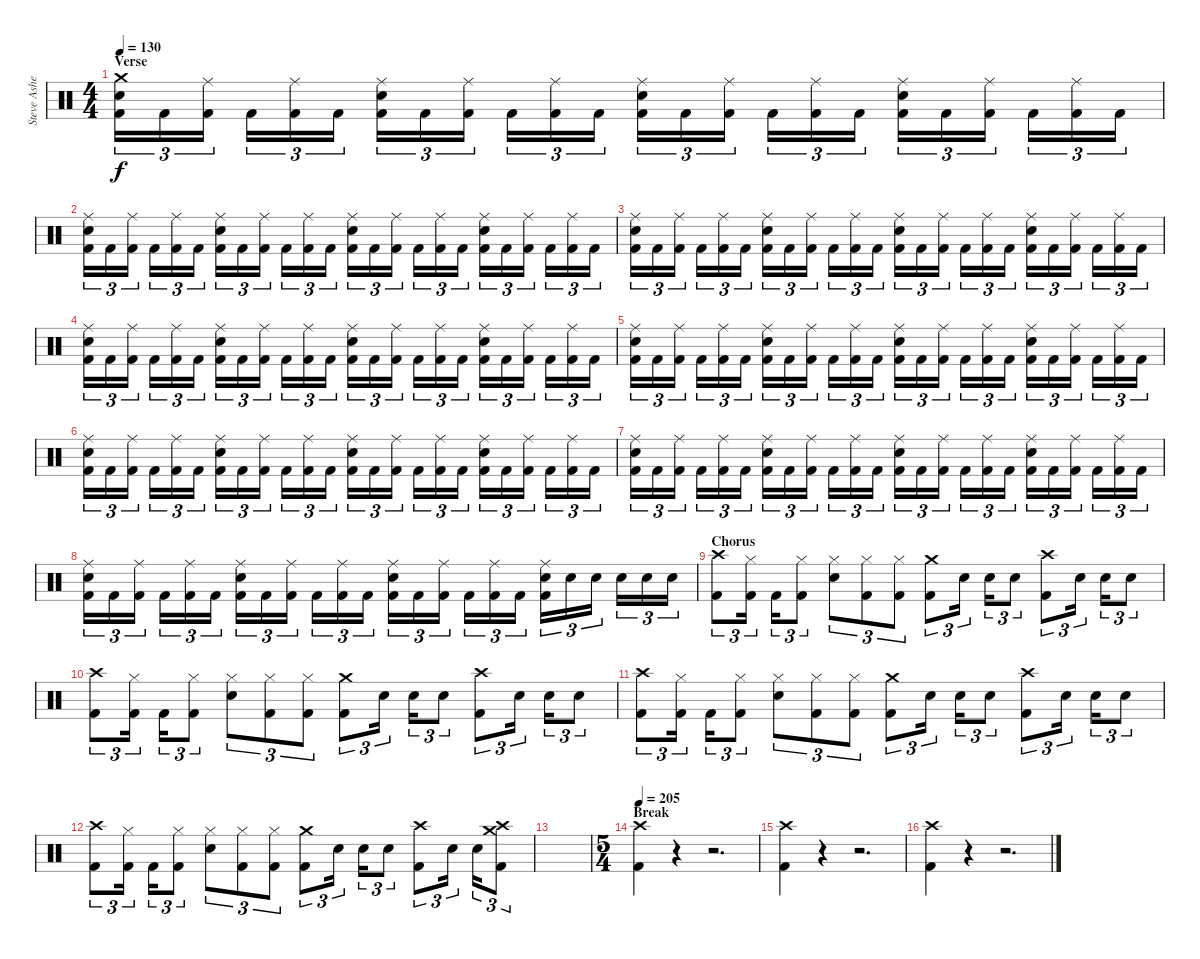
\track ("Steve Asheim" "Steve Ashe") {instrument percussion}
\staff {score}
\articulation defaults
\ts (4 4)
\section ("" "Verse")
\tempo 130
\clef neutral
\ks c
("Crash medium (hit)" "Electric Snare (hit)" "Kick (hit) 2").16{tu (3 2) dy f} "Kick (hit) 2".16{tu (3 2)} ("Ride (middle)" "Kick (hit) 2").16{tu (3 2)} "Kick (hit) 2".16{tu (3 2)} ("Ride (middle)" "Kick (hit) 2").16{tu (3 2)} "Kick (hit) 2".16{tu (3 2)} ("Ride (middle)" "Electric Snare (hit)" "Kick (hit) 2").16{tu (3 2)} "Kick (hit) 2".16{tu (3 2)} ("Ride (middle)" "Kick (hit) 2").16{tu (3 2)} "Kick (hit) 2".16{tu (3 2)} ("Ride (middle)" "Kick (hit) 2").16{tu (3 2)} "Kick (hit) 2".16{tu (3 2)} ("Ride (middle)" "Electric Snare (hit)" "Kick (hit) 2").16{tu (3 2)} "Kick (hit) 2".16{tu (3 2)} ("Ride (middle)" "Kick (hit) 2").16{tu (3 2)} "Kick (hit) 2".16{tu (3 2)} ("Ride (middle)" "Kick (hit) 2").16{tu (3 2)} "Kick (hit) 2".16{tu (3 2)} ("Ride (middle)" "Electric Snare (hit)" "Kick (hit) 2").16{tu (3 2)} "Kick (hit) 2".16{tu (3 2)} ("Ride (middle)" "Kick (hit) 2").16{tu (3 2)} "Kick (hit) 2".16{tu (3 2)} ("Ride (middle)" "Kick (hit) 2").16{tu (3 2)} "Kick (hit) 2".16{tu (3 2)} |
("Ride (middle)" "Electric Snare (hit)" "Kick (hit) 2").16{tu (3 2)} "Kick (hit) 2".16{tu (3 2)} ("Ride (middle)" "Kick (hit) 2").16{tu (3 2)} "Kick (hit) 2".16{tu (3 2)} ("Ride (middle)" "Kick (hit) 2").16{tu (3 2)} "Kick (hit) 2".16{tu (3 2)} ("Ride (middle)" "Electric Snare (hit)" "Kick (hit) 2").16{tu (3 2)} "Kick (hit) 2".16{tu (3 2)} ("Ride (middle)" "Kick (hit) 2").16{tu (3 2)} "Kick (hit) 2".16{tu (3 2)} ("Ride (middle)" "Kick (hit) 2").16{tu (3 2)} "Kick (hit) 2".16{tu (3 2)} ("Ride (middle)" "Electric Snare (hit)" "Kick (hit) 2").16{tu (3 2)} "Kick (hit) 2".16{tu (3 2)} ("Ride (middle)" "Kick (hit) 2").16{tu (3 2)} "Kick (hit) 2".16{tu (3 2)} ("Ride (middle)" "Kick (hit) 2").16{tu (3 2)} "Kick (hit) 2".16{tu (3 2)} ("Ride (middle)" "Electric Snare (hit)" "Kick (hit) 2").16{tu (3 2)} "Kick (hit) 2".16{tu (3 2)} ("Ride (middle)" "Kick (hit) 2").16{tu (3 2)} "Kick (hit) 2".16{tu (3 2)} ("Ride (middle)" "Kick (hit) 2").16{tu (3 2)} "Kick (hit) 2".16{tu (3 2)} |
("Ride (middle)" "Electric Snare (hit)" "Kick (hit) 2").16{tu (3 2)} "Kick (hit) 2".16{tu (3 2)} ("Ride (middle)" "Kick (hit) 2").16{tu (3 2)} "Kick (hit) 2".16{tu (3 2)} ("Ride (middle)" "Kick (hit) 2").16{tu (3 2)} "Kick (hit) 2".16{tu (3 2)} ("Ride (middle)" "Electric Snare (hit)" "Kick (hit) 2").16{tu (3 2)} "Kick (hit) 2".16{tu (3 2)} ("Ride (middle)" "Kick (hit) 2").16{tu (3 2)} "Kick (hit) 2".16{tu (3 2)} ("Ride (middle)" "Kick (hit) 2").16{tu (3 2)} "Kick (hit) 2".16{tu (3 2)} ("Ride (middle)" "Electric Snare (hit)" "Kick (hit) 2").16{tu (3 2)} "Kick (hit) 2".16{tu (3 2)} ("Ride (middle)" "Kick (hit) 2").16{tu (3 2)} "Kick (hit) 2".16{tu (3 2)} ("Ride (middle)" "Kick (hit) 2").16{tu (3 2)} "Kick (hit) 2".16{tu (3 2)} ("Ride (middle)" "Electric Snare (hit)" "Kick (hit) 2").16{tu (3 2)} "Kick (hit) 2".16{tu (3 2)} ("Ride (middle)" "Kick (hit) 2").16{tu (3 2)} "Kick (hit) 2".16{tu (3 2)} ("Ride (middle)" "Kick (hit) 2").16{tu (3 2)} "Kick (hit) 2".16{tu (3 2)} |
("Ride (middle)" "Electric Snare (hit)" "Kick (hit) 2").16{tu (3 2)} "Kick (hit) 2".16{tu (3 2)} ("Ride (middle)" "Kick (hit) 2").16{tu (3 2)} "Kick (hit) 2".16{tu (3 2)} ("Ride (middle)" "Kick (hit) 2").16{tu (3 2)} "Kick (hit) 2".16{tu (3 2)} ("Ride (middle)" "Electric Snare (hit)" "Kick (hit) 2").16{tu (3 2)} "Kick (hit) 2".16{tu (3 2)} ("Ride (middle)" "Kick (hit) 2").16{tu (3 2)} "Kick (hit) 2".16{tu (3 2)} ("Ride (middle)" "Kick (hit) 2").16{tu (3 2)} "Kick (hit) 2".16{tu (3 2)} ("Ride (middle)" "Electric Snare (hit)" "Kick (hit) 2").16{tu (3 2)} "Kick (hit) 2".16{tu (3 2)} ("Ride (middle)" "Kick (hit) 2").16{tu (3 2)} "Kick (hit) 2".16{tu (3 2)} ("Ride (middle)" "Kick (hit) 2").16{tu (3 2)} "Kick (hit) 2".16{tu (3 2)} ("Ride (middle)" "Electric Snare (hit)" "Kick (hit) 2").16{tu (3 2)} "Kick (hit) 2".16{tu (3 2)} ("Ride (middle)" "Kick (hit) 2").16{tu (3 2)} "Kick (hit) 2".16{tu (3 2)} ("Ride (middle)" "Kick (hit) 2").16{tu (3 2)} "Kick (hit) 2".16{tu (3 2)} |
("Ride (middle)" "Electric Snare (hit)" "Kick (hit) 2").16{tu (3 2)} "Kick (hit) 2".16{tu (3 2)} ("Ride (middle)" "Kick (hit) 2").16{tu (3 2)} "Kick (hit) 2".16{tu (3 2)} ("Ride (middle)" "Kick (hit) 2").16{tu (3 2)} "Kick (hit) 2".16{tu (3 2)} ("Ride (middle)" "Electric Snare (hit)" "Kick (hit) 2").16{tu (3 2)} "Kick (hit) 2".16{tu (3 2)} ("Ride (middle)" "Kick (hit) 2").16{tu (3 2)} "Kick (hit) 2".16{tu (3 2)} ("Ride (middle)" "Kick (hit) 2").16{tu (3 2)} "Kick (hit) 2".16{tu (3 2)} ("Ride (middle)" "Electric Snare (hit)" "Kick (hit) 2").16{tu (3 2)} "Kick (hit) 2".16{tu (3 2)} ("Ride (middle)" "Kick (hit) 2").16{tu (3 2)} "Kick (hit) 2".16{tu (3 2)} ("Ride (middle)" "Kick (hit) 2").16{tu (3 2)} "Kick (hit) 2".16{tu (3 2)} ("Ride (middle)" "Electric Snare (hit)" "Kick (hit) 2").16{tu (3 2)} "Kick (hit) 2".16{tu (3 2)} ("Ride (middle)" "Kick (hit) 2").16{tu (3 2)} "Kick (hit) 2".16{tu (3 2)} ("Ride (middle)" "Kick (hit) 2").16{tu (3 2)} "Kick (hit) 2".16{tu (3 2)} |
("Ride (middle)" "Electric Snare (hit)" "Kick (hit) 2").16{tu (3 2)} "Kick (hit) 2".16{tu (3 2)} ("Ride (middle)" "Kick (hit) 2").16{tu (3 2)} "Kick (hit) 2".16{tu (3 2)} ("Ride (middle)" "Kick (hit) 2").16{tu (3 2)} "Kick (hit) 2".16{tu (3 2)} ("Ride (middle)" "Electric Snare (hit)" "Kick (hit) 2").16{tu (3 2)} "Kick (hit) 2".16{tu (3 2)} ("Ride (middle)" "Kick (hit) 2").16{tu (3 2)} "Kick (hit) 2".16{tu (3 2)} ("Ride (middle)" "Kick (hit) 2").16{tu (3 2)} "Kick (hit) 2".16{tu (3 2)} ("Ride (middle)" "Electric Snare (hit)" "Kick (hit) 2").16{tu (3 2)} "Kick (hit) 2".16{tu (3 2)} ("Ride (middle)" "Kick (hit) 2").16{tu (3 2)} "Kick (hit) 2".16{tu (3 2)} ("Ride (middle)" "Kick (hit) 2").16{tu (3 2)} "Kick (hit) 2".16{tu (3 2)} ("Ride (middle)" "Electric Snare (hit)" "Kick (hit) 2").16{tu (3 2)} "Kick (hit) 2".16{tu (3 2)} ("Ride (middle)" "Kick (hit) 2").16{tu (3 2)} "Kick (hit) 2".16{tu (3 2)} ("Ride (middle)" "Kick (hit) 2").16{tu (3 2)} "Kick (hit) 2".16{tu (3 2)} |
("Ride (middle)" "Electric Snare (hit)" "Kick (hit) 2").16{tu (3 2)} "Kick (hit) 2".16{tu (3 2)} ("Ride (middle)" "Kick (hit) 2").16{tu (3 2)} "Kick (hit) 2".16{tu (3 2)} ("Ride (middle)" "Kick (hit) 2").16{tu (3 2)} "Kick (hit) 2".16{tu (3 2)} ("Ride (middle)" "Electric Snare (hit)" "Kick (hit) 2").16{tu (3 2)} "Kick (hit) 2".16{tu (3 2)} ("Ride (middle)" "Kick (hit) 2").16{tu (3 2)} "Kick (hit) 2".16{tu (3 2)} ("Ride (middle)" "Kick (hit) 2").16{tu (3 2)} "Kick (hit) 2".16{tu (3 2)} ("Ride (middle)" "Electric Snare (hit)" "Kick (hit) 2").16{tu (3 2)} "Kick (hit) 2".16{tu (3 2)} ("Ride (middle)" "Kick (hit) 2").16{tu (3 2)} "Kick (hit) 2".16{tu (3 2)} ("Ride (middle)" "Kick (hit) 2").16{tu (3 2)} "Kick (hit) 2".16{tu (3 2)} ("Ride (middle)" "Electric Snare (hit)" "Kick (hit) 2").16{tu (3 2)} "Kick (hit) 2".16{tu (3 2)} ("Ride (middle)" "Kick (hit) 2").16{tu (3 2)} "Kick (hit) 2".16{tu (3 2)} ("Ride (middle)" "Kick (hit) 2").16{tu (3 2)} "Kick (hit) 2".16{tu (3 2)} |
("Ride (middle)" "Electric Snare (hit)" "Kick (hit) 2").16{tu (3 2)} "Kick (hit) 2".16{tu (3 2)} ("Ride (middle)" "Kick (hit) 2").16{tu (3 2)} "Kick (hit) 2".16{tu (3 2)} ("Ride (middle)" "Kick (hit) 2").16{tu (3 2)} "Kick (hit) 2".16{tu (3 2)} ("Ride (middle)" "Electric Snare (hit)" "Kick (hit) 2").16{tu (3 2)} "Kick (hit) 2".16{tu (3 2)} ("Ride (middle)" "Kick (hit) 2").16{tu (3 2)} "Kick (hit) 2".16{tu (3 2)} ("Ride (middle)" "Kick (hit) 2").16{tu (3 2)} "Kick (hit) 2".16{tu (3 2)} ("Ride (middle)" "Electric Snare (hit)" "Kick (hit) 2").16{tu (3 2)} "Kick (hit) 2".16{tu (3 2)} ("Ride (middle)" "Kick (hit) 2").16{tu (3 2)} "Kick (hit) 2".16{tu (3 2)} ("Ride (middle)" "Kick (hit) 2").16{tu (3 2)} "Kick (hit) 2".16{tu (3 2)} ("Ride (middle)" "Electric Snare (hit)" "Kick (hit) 2").16{tu (3 2)} "Electric Snare (hit)".16{tu (3 2)} "Electric Snare (hit)".16{tu (3 2)} "Electric Snare (hit)".16{tu (3 2)} "Electric Snare (hit)".16{tu (3 2)} "Electric Snare (hit)".16{tu (3 2)} |
\section ("" "Chorus")
("Crash high (hit)" "Kick (hit) 2").8{tu (3 2)} ("Hi-Hat (closed)" "Kick (hit) 2").16{tu (3 2)} "Kick (hit) 2".16{tu (3 2)} ("Hi-Hat (closed)" "Kick (hit) 2").8{tu (3 2)} ("Hi-Hat (closed)" "Electric Snare (hit)").8{tu (3 2)} ("Hi-Hat (closed)" "Kick (hit) 2").8{tu (3 2)} ("Hi-Hat (closed)" "Kick (hit) 2").8{tu (3 2)} ("Crash medium (hit)" "Kick (hit) 2").8{tu (3 2)} "Electric Snare (hit)".16{tu (3 2)} "Electric Snare (hit)".16{tu (3 2)} "Electric Snare (hit)".8{tu (3 2)} ("Crash high (hit)" "Kick (hit) 2").8{tu (3 2)} "Electric Snare (hit)".16{tu (3 2)} "Electric Snare (hit)".16{tu (3 2)} "Electric Snare (hit)".8{tu (3 2)} |
("Crash high (hit)" "Kick (hit) 2").8{tu (3 2)} ("Hi-Hat (closed)" "Kick (hit) 2").16{tu (3 2)} "Kick (hit) 2".16{tu (3 2)} ("Hi-Hat (closed)" "Kick (hit) 2").8{tu (3 2)} ("Hi-Hat (closed)" "Electric Snare (hit)").8{tu (3 2)} ("Hi-Hat (closed)" "Kick (hit) 2").8{tu (3 2)} ("Hi-Hat (closed)" "Kick (hit) 2").8{tu (3 2)} ("Crash medium (hit)" "Kick (hit) 2").8{tu (3 2)} "Electric Snare (hit)".16{tu (3 2)} "Electric Snare (hit)".16{tu (3 2)} "Electric Snare (hit)".8{tu (3 2)} ("Crash high (hit)" "Kick (hit) 2").8{tu (3 2)} "Electric Snare (hit)".16{tu (3 2)} "Electric Snare (hit)".16{tu (3 2)} "Electric Snare (hit)".8{tu (3 2)} |
("Crash high (hit)" "Kick (hit) 2").8{tu (3 2)} ("Hi-Hat (closed)" "Kick (hit) 2").16{tu (3 2)} "Kick (hit) 2".16{tu (3 2)} ("Hi-Hat (closed)" "Kick (hit) 2").8{tu (3 2)} ("Hi-Hat (closed)" "Electric Snare (hit)").8{tu (3 2)} ("Hi-Hat (closed)" "Kick (hit) 2").8{tu (3 2)} ("Hi-Hat (closed)" "Kick (hit) 2").8{tu (3 2)} ("Crash medium (hit)" "Kick (hit) 2").8{tu (3 2)} "Electric Snare (hit)".16{tu (3 2)} "Electric Snare (hit)".16{tu (3 2)} "Electric Snare (hit)".8{tu (3 2)} ("Crash high (hit)" "Kick (hit) 2").8{tu (3 2)} "Electric Snare (hit)".16{tu (3 2)} "Electric Snare (hit)".16{tu (3 2)} "Electric Snare (hit)".8{tu (3 2)} |
("Crash high (hit)" "Kick (hit) 2").8{tu (3 2)} ("Hi-Hat (closed)" "Kick (hit) 2").16{tu (3 2)} "Kick (hit) 2".16{tu (3 2)} ("Hi-Hat (closed)" "Kick (hit) 2").8{tu (3 2)} ("Hi-Hat (closed)" "Electric Snare (hit)").8{tu (3 2)} ("Hi-Hat (closed)" "Kick (hit) 2").8{tu (3 2)} ("Hi-Hat (closed)" "Kick (hit) 2").8{tu (3 2)} ("Crash medium (hit)" "Kick (hit) 2").8{tu (3 2)} "Electric Snare (hit)".16{tu (3 2)} "Electric Snare (hit)".16{tu (3 2)} "Electric Snare (hit)".8{tu (3 2)} ("Crash high (hit)" "Kick (hit) 2").8{tu (3 2)} "Electric Snare (hit)".16{tu (3 2)} "Electric Snare (hit)".16{tu (3 2)} ("Crash medium (hit)" "Crash high (hit)" "Kick (hit) 2").8{tu (3 2)} |
|
\ts (5 4)
\section ("" "Break")
\tempo 205
("Crash high (hit)" "Kick (hit) 2").4 r.4{volume 0} r.2{d} |
("Crash high (hit)" "Kick (hit) 2").4{volume 14} r.4{volume 0} r.2{d} |
("Crash high (hit)" "Kick (hit) 2").4{volume 14} r.4{volume 0} r.2{d}
